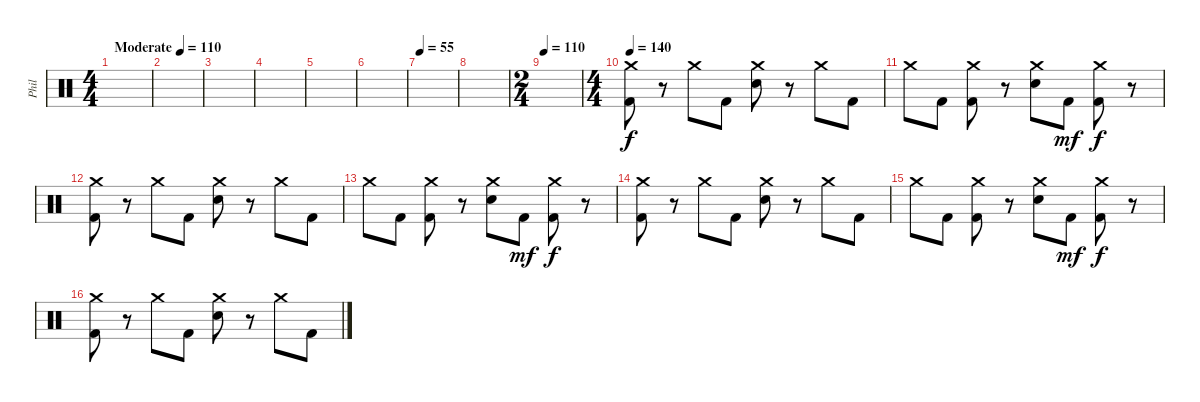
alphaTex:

\track ("Phil" "Phil") {instrument percussion}
\staff {score}
\articulation defaults
\ts (4 4)
\tempo (110 "Moderate")
\clef neutral
\ks c
|
|
|
|
|
|
\tempo 55
|
|
\ts (2 4)
\tempo 110
|
\ts (4 4)
\tempo 140
("Crash medium (hit)" "Kick (hit) 2").8 r.8 "Crash medium (hit)".8 "Kick (hit) 2".8 ("Crash medium (hit)" "Snare (hit) 2").8 r.8 "Crash medium (hit)".8 "Kick (hit) 2".8 |
"Crash medium (hit)".8 "Kick (hit) 2".8 ("Crash medium (hit)" "Kick (hit) 2").8 r.8 ("Crash medium (hit)" "Snare (hit) 2").8 "Kick (hit) 2".8{dy mf} ("Crash medium (hit)" "Kick (hit) 2").8{dy f} r.8 |
("Crash medium (hit)" "Kick (hit) 2").8 r.8 "Crash medium (hit)".8 "Kick (hit) 2".8 ("Crash medium (hit)" "Snare (hit) 2").8 r.8 "Crash medium (hit)".8 "Kick (hit) 2".8 |
"Crash medium (hit)".8 "Kick (hit) 2".8 ("Crash medium (hit)" "Kick (hit) 2").8 r.8 ("Crash medium (hit)" "Snare (hit) 2").8 "Kick (hit) 2".8{dy mf} ("Crash medium (hit)" "Kick (hit) 2").8{dy f} r.8 |
("Crash medium (hit)" "Kick (hit) 2").8 r.8 "Crash medium (hit)".8 "Kick (hit) 2".8 ("Crash medium (hit)" "Snare (hit) 2").8 r.8 "Crash medium (hit)".8 "Kick (hit) 2".8 |
"Crash medium (hit)".8 "Kick (hit) 2".8 ("Crash medium (hit)" "Kick (hit) 2").8 r.8 ("Crash medium (hit)" "Snare (hit) 2").8 "Kick (hit) 2".8{dy mf} ("Crash medium (hit)" "Kick (hit) 2").8{dy f} r.8 |
("Crash medium (hit)" "Kick (hit) 2").8 r.8 "Crash medium (hit)".8 "Kick (hit) 2".8 ("Crash medium (hit)" "Snare (hit) 2").8 r.8 "Crash medium (hit)".8 "Kick (hit) 2".8
